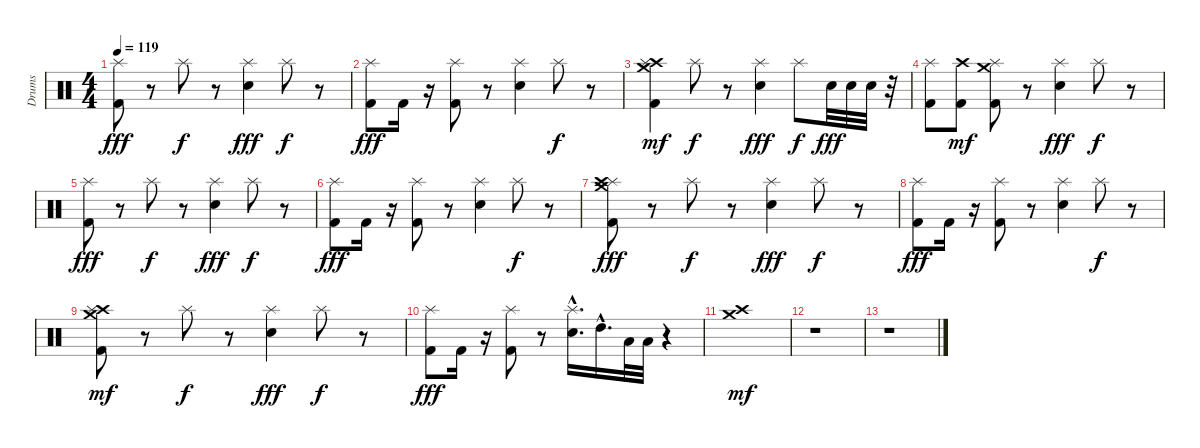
\track ("Drums" "Drums") {instrument percussion}
\staff {score}
\articulation defaults
\ts (4 4)
\tempo 119
\clef neutral
\ks c
("Splash (hit)" "Kick (hit) 2").8{dy fff} r.8 "Splash (hit)".8{dy f} r.8 ("Splash (hit)" "Snare (hit) 2").4{dy fff} "Splash (hit)".8{dy f} r.8 |
("Kick (hit) 2" "Splash (hit)").8{dy fff} "Kick (hit) 2".16 r.16 ("Kick (hit) 2" "Splash (hit)").8 r.8 ("Splash (hit)" "Snare (hit) 2").4 "Splash (hit)".8{dy f} r.8 |
("Kick (hit) 2" "Crash high (hit)" "Crash medium (hit)" "Splash (hit)").4{dy mf} "Splash (hit)".8{dy f} r.8 ("Snare (hit) 2" "Splash (hit)").4{dy fff} "Splash (hit)".8{dy f} "Snare (hit) 2".32{dy fff} "Snare (hit) 2".32 "Snare (hit) 2".32 r.32 |
("Kick (hit) 2" "Splash (hit)").8 ("Kick (hit) 2" "Crash high (hit)").8{dy mf} ("Kick (hit) 2" "Splash (hit)" "Crash medium (hit)").8 r.8 ("Snare (hit) 2" "Splash (hit)").4{dy fff} "Splash (hit)".8{dy f} r.8 |
("Kick (hit) 2" "Splash (hit)").8{dy fff} r.8 "Splash (hit)".8{dy f} r.8 ("Snare (hit) 2" "Splash (hit)").4{dy fff} "Splash (hit)".8{dy f} r.8 |
("Kick (hit) 2" "Splash (hit)").8{dy fff} "Kick (hit) 2".16 r.16 ("Kick (hit) 2" "Splash (hit)").8 r.8 ("Splash (hit)" "Snare (hit) 2").4 "Splash (hit)".8{dy f} r.8 |
("Splash (hit)" "Crash medium (hit)" "Crash high (hit)" "Kick (hit) 2").8{dy fff} r.8 "Splash (hit)".8{dy f} r.8 ("Snare (hit) 2" "Splash (hit)").4{dy fff} "Splash (hit)".8{dy f} r.8 |
("Splash (hit)" "Kick (hit) 2").8{dy fff} "Kick (hit) 2".16 r.16 ("Kick (hit) 2" "Splash (hit)").8 r.8 ("Splash (hit)" "Snare (hit) 2").4 "Splash (hit)".8{dy f} r.8 |
("Crash high (hit)" "Kick (hit) 2" "Crash medium (hit)" "Splash (hit)").8{dy mf} r.8 "Splash (hit)".8{dy f} r.8 ("Snare (hit) 2" "Splash (hit)").4{dy fff} "Splash (hit)".8{dy f} r.8 |
("Kick (hit) 2" "Splash (hit)").8{dy fff} "Kick (hit) 2".16 r.16 ("Kick (hit) 2" "Splash (hit)").8 r.8 ("Snare (hit) 2"{hac} "Splash (hit)").16{d} "High Tom (hit)"{hac}.16{d} "Low Tom (hit)".32 "Low Tom (hit)".32 r.4 |
("Crash high (hit)" "Crash medium (hit)").1{dy mf} |
r.1 |
r.1
